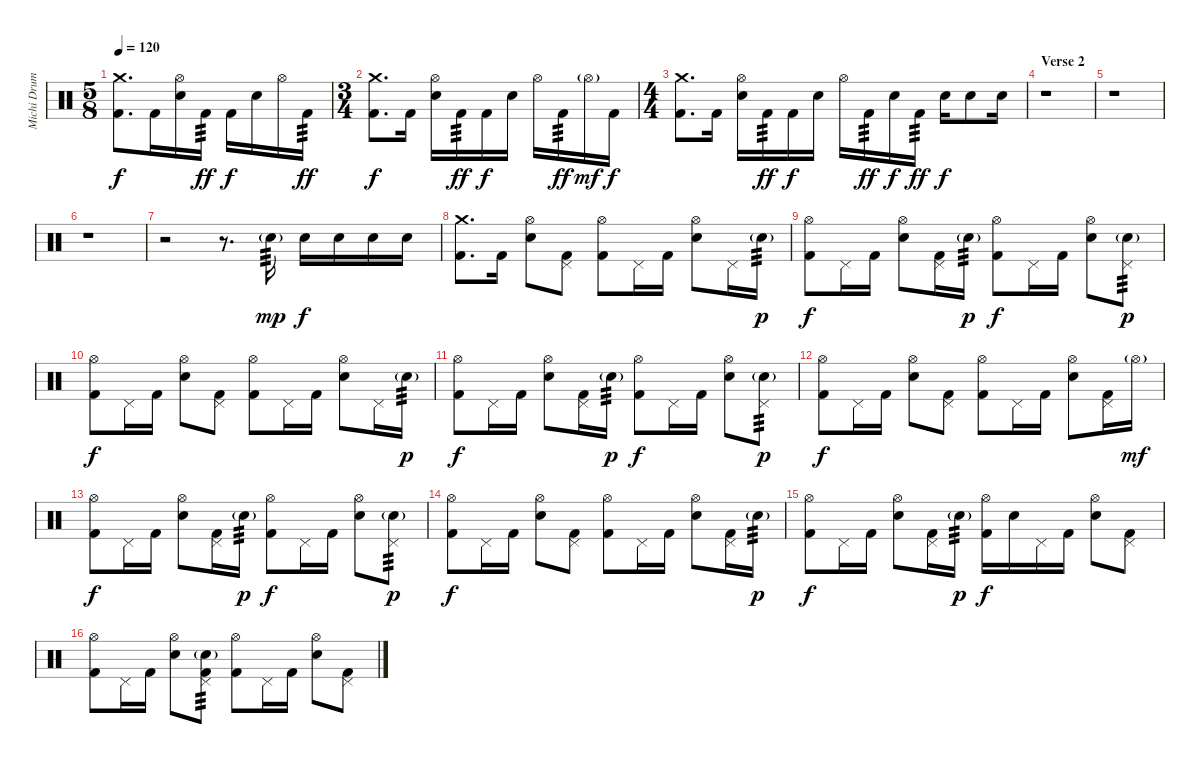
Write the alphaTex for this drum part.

\track ("Michi Drums" "Michi Drum") {instrument percussion}
\staff {score}
\articulation defaults
\ts (5 8)
\tempo 120
\clef neutral
\ks c
("Crash medium (hit)" "Kick (hit) 2").8{d dy f} "Kick (hit) 2".16 ("Hi-Hat (open)" "Electric Snare (hit)").16 "Kick (hit) 2".16{tp 3 dy ff} "Kick (hit) 2".16{dy f} "Electric Snare (hit)".16 "Hi-Hat (open)".16 "Kick (hit) 2".16{tp 3 dy ff} |
\ts (3 4)
("Crash medium (hit)" "Kick (hit) 2").8{d dy f} "Kick (hit) 2".16 ("Hi-Hat (open)" "Electric Snare (hit)").16 "Kick (hit) 2".16{tp 3 dy ff} "Kick (hit) 2".16{dy f} "Electric Snare (hit)".16 "Hi-Hat (open)".16 "Kick (hit) 2".16{tp 3 dy ff} "Hi-Hat (open)"{g}.16{dy mf} "Kick (hit) 2".16{dy f} |
\ts (4 4)
("Crash medium (hit)" "Kick (hit) 2").8{d} "Kick (hit) 2".16 ("Hi-Hat (open)" "Electric Snare (hit)").16 "Kick (hit) 2".16{tp 3 dy ff} "Kick (hit) 2".16{dy f} "Electric Snare (hit)".16 "Hi-Hat (open)".16 "Kick (hit) 2".16{tp 3 dy ff} "Electric Snare (hit)".16{dy f} "Kick (hit) 2".16{tp 3 dy ff} "Electric Snare (hit)".16{dy f} "Electric Snare (hit)".8 "Electric Snare (hit)".16 |
\section ("" "Verse 2")
r.1 |
r.1 |
r.1 |
r.2 r.8{d} "Electric Snare (hit)"{g}.16{tp 3 dy mp} "Electric Snare (hit)".16{dy f} "Electric Snare (hit)".16 "Electric Snare (hit)".16 "Electric Snare (hit)".16 |
("Crash medium (hit)" "Kick (hit) 2").8{d} "Kick (hit) 2".16 ("Hi-Hat (open)" "Electric Snare (hit)").8 ("Pedal Hi-Hat (hit)" "Kick (hit) 2").8 ("Hi-Hat (open)" "Kick (hit) 2").8 "Pedal Hi-Hat (hit)".16 "Kick (hit) 2".16 ("Hi-Hat (open)" "Electric Snare (hit)").8 "Pedal Hi-Hat (hit)".16 "Electric Snare (hit)"{g}.16{tp 3 dy p} |
("Hi-Hat (open)" "Kick (hit) 2").8{dy f} "Pedal Hi-Hat (hit)".16 "Kick (hit) 2".16 ("Hi-Hat (open)" "Electric Snare (hit)").8 ("Pedal Hi-Hat (hit)" "Kick (hit) 2").16 "Electric Snare (hit)"{g}.16{tp 3 dy p} ("Hi-Hat (open)" "Kick (hit) 2").8{dy f} "Pedal Hi-Hat (hit)".16 "Kick (hit) 2".16 ("Hi-Hat (open)" "Electric Snare (hit)").8 ("Pedal Hi-Hat (hit)" "Electric Snare (hit)"{g}).8{tp 3 dy p} |
("Hi-Hat (open)" "Kick (hit) 2").8{dy f} "Pedal Hi-Hat (hit)".16 "Kick (hit) 2".16 ("Hi-Hat (open)" "Electric Snare (hit)").8 ("Pedal Hi-Hat (hit)" "Kick (hit) 2").8 ("Hi-Hat (open)" "Kick (hit) 2").8 "Pedal Hi-Hat (hit)".16 "Kick (hit) 2".16 ("Hi-Hat (open)" "Electric Snare (hit)").8 "Pedal Hi-Hat (hit)".16 "Electric Snare (hit)"{g}.16{tp 3 dy p} |
("Hi-Hat (open)" "Kick (hit) 2").8{dy f} "Pedal Hi-Hat (hit)".16 "Kick (hit) 2".16 ("Hi-Hat (open)" "Electric Snare (hit)").8 ("Pedal Hi-Hat (hit)" "Kick (hit) 2").16 "Electric Snare (hit)"{g}.16{tp 3 dy p} ("Hi-Hat (open)" "Kick (hit) 2").8{dy f} "Pedal Hi-Hat (hit)".16 "Kick (hit) 2".16 ("Hi-Hat (open)" "Electric Snare (hit)").8 ("Pedal Hi-Hat (hit)" "Electric Snare (hit)"{g}).8{tp 3 dy p} |
("Hi-Hat (open)" "Kick (hit) 2").8{dy f} "Pedal Hi-Hat (hit)".16 "Kick (hit) 2".16 ("Hi-Hat (open)" "Electric Snare (hit)").8 ("Pedal Hi-Hat (hit)" "Kick (hit) 2").8 ("Hi-Hat (open)" "Kick (hit) 2").8 "Pedal Hi-Hat (hit)".16 "Kick (hit) 2".16 ("Hi-Hat (open)" "Electric Snare (hit)").8 ("Pedal Hi-Hat (hit)" "Kick (hit) 2").16 "Hi-Hat (open)"{g}.16{dy mf} |
("Hi-Hat (open)" "Kick (hit) 2").8{dy f} "Pedal Hi-Hat (hit)".16 "Kick (hit) 2".16 ("Hi-Hat (open)" "Electric Snare (hit)").8 ("Pedal Hi-Hat (hit)" "Kick (hit) 2").16 "Electric Snare (hit)"{g}.16{tp 3 dy p} ("Hi-Hat (open)" "Kick (hit) 2").8{dy f} "Pedal Hi-Hat (hit)".16 "Kick (hit) 2".16 ("Hi-Hat (open)" "Electric Snare (hit)").8 ("Pedal Hi-Hat (hit)" "Electric Snare (hit)"{g}).8{tp 3 dy p} |
("Hi-Hat (open)" "Kick (hit) 2").8{dy f} "Pedal Hi-Hat (hit)".16 "Kick (hit) 2".16 ("Hi-Hat (open)" "Electric Snare (hit)").8 ("Pedal Hi-Hat (hit)" "Kick (hit) 2").8 ("Hi-Hat (open)" "Kick (hit) 2").8 "Pedal Hi-Hat (hit)".16 "Kick (hit) 2".16 ("Hi-Hat (open)" "Electric Snare (hit)").8 ("Pedal Hi-Hat (hit)" "Kick (hit) 2").16 "Electric Snare (hit)"{g}.16{tp 3 dy p} |
("Hi-Hat (open)" "Kick (hit) 2").8{dy f} "Pedal Hi-Hat (hit)".16 "Kick (hit) 2".16 ("Hi-Hat (open)" "Electric Snare (hit)").8 ("Pedal Hi-Hat (hit)" "Kick (hit) 2").16 "Electric Snare (hit)"{g}.16{tp 3 dy p} ("Hi-Hat (open)" "Kick (hit) 2").16{dy f} "Electric Snare (hit)".16 "Pedal Hi-Hat (hit)".16 "Kick (hit) 2".16 ("Hi-Hat (open)" "Electric Snare (hit)").8 ("Pedal Hi-Hat (hit)" "Kick (hit) 2").8 |
("Hi-Hat (open)" "Kick (hit) 2").8 "Pedal Hi-Hat (hit)".16 "Kick (hit) 2".16 ("Hi-Hat (open)" "Electric Snare (hit)").8 ("Pedal Hi-Hat (hit)" "Electric Snare (hit)"{g} "Kick (hit) 2").8{tp 3} ("Hi-Hat (open)" "Kick (hit) 2").8 "Pedal Hi-Hat (hit)".16 "Kick (hit) 2".16 ("Hi-Hat (open)" "Electric Snare (hit)").8 ("Pedal Hi-Hat (hit)" "Kick (hit) 2").8
